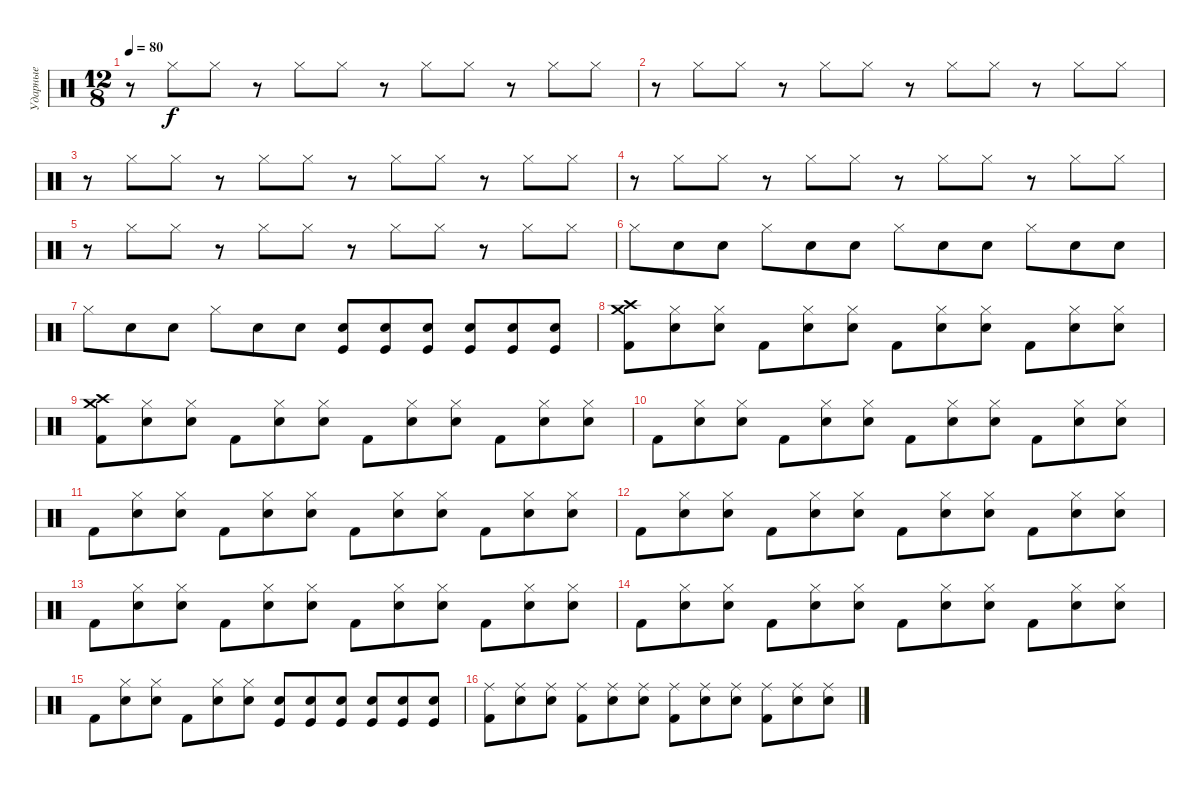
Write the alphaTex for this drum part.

\track ("Ударные" "Ударные") {instrument percussion}
\staff {score}
\articulation defaults
\ts (12 8)
\tempo 80
\clef neutral
\ks c
r.8{dy f} "Hi-Hat (closed)".8 "Hi-Hat (closed)".8 r.8 "Hi-Hat (closed)".8 "Hi-Hat (closed)".8 r.8 "Hi-Hat (closed)".8 "Hi-Hat (closed)".8 r.8 "Hi-Hat (closed)".8 "Hi-Hat (closed)".8 |
r.8 "Hi-Hat (closed)".8 "Hi-Hat (closed)".8 r.8 "Hi-Hat (closed)".8 "Hi-Hat (closed)".8 r.8 "Hi-Hat (closed)".8 "Hi-Hat (closed)".8 r.8 "Hi-Hat (closed)".8 "Hi-Hat (closed)".8 |
r.8 "Hi-Hat (closed)".8 "Hi-Hat (closed)".8 r.8 "Hi-Hat (closed)".8 "Hi-Hat (closed)".8 r.8 "Hi-Hat (closed)".8 "Hi-Hat (closed)".8 r.8 "Hi-Hat (closed)".8 "Hi-Hat (closed)".8 |
r.8 "Hi-Hat (closed)".8 "Hi-Hat (closed)".8 r.8 "Hi-Hat (closed)".8 "Hi-Hat (closed)".8 r.8 "Hi-Hat (closed)".8 "Hi-Hat (closed)".8 r.8 "Hi-Hat (closed)".8 "Hi-Hat (closed)".8 |
r.8 "Hi-Hat (closed)".8 "Hi-Hat (closed)".8 r.8 "Hi-Hat (closed)".8 "Hi-Hat (closed)".8 r.8 "Hi-Hat (closed)".8 "Hi-Hat (closed)".8 r.8 "Hi-Hat (closed)".8 "Hi-Hat (closed)".8 |
"Hi-Hat (closed)".8 "Electric Snare (hit)".8 "Electric Snare (hit)".8 "Hi-Hat (closed)".8 "Electric Snare (hit)".8 "Electric Snare (hit)".8 "Hi-Hat (closed)".8 "Electric Snare (hit)".8 "Electric Snare (hit)".8 "Hi-Hat (closed)".8 "Electric Snare (hit)".8 "Electric Snare (hit)".8 |
"Hi-Hat (closed)".8 "Electric Snare (hit)".8 "Electric Snare (hit)".8 "Hi-Hat (closed)".8 "Electric Snare (hit)".8 "Electric Snare (hit)".8 ("Electric Snare (hit)" "Kick (hit)").8 ("Electric Snare (hit)" "Kick (hit)").8 ("Electric Snare (hit)" "Kick (hit)").8 ("Electric Snare (hit)" "Kick (hit)").8 ("Electric Snare (hit)" "Kick (hit)").8 ("Electric Snare (hit)" "Kick (hit)").8 |
("Crash high (hit)" "Crash medium (hit)" "Kick (hit) 2").8 ("Electric Snare (hit)" "Hi-Hat (closed)").8 ("Electric Snare (hit)" "Hi-Hat (closed)").8 "Kick (hit) 2".8 ("Electric Snare (hit)" "Hi-Hat (closed)").8 ("Electric Snare (hit)" "Hi-Hat (closed)").8 "Kick (hit) 2".8 ("Electric Snare (hit)" "Hi-Hat (closed)").8 ("Electric Snare (hit)" "Hi-Hat (closed)").8 "Kick (hit) 2".8 ("Electric Snare (hit)" "Hi-Hat (closed)").8 ("Electric Snare (hit)" "Hi-Hat (closed)").8 |
("Crash high (hit)" "Crash medium (hit)" "Kick (hit) 2").8 ("Electric Snare (hit)" "Hi-Hat (closed)").8 ("Electric Snare (hit)" "Hi-Hat (closed)").8 "Kick (hit) 2".8 ("Electric Snare (hit)" "Hi-Hat (closed)").8 ("Electric Snare (hit)" "Hi-Hat (closed)").8 "Kick (hit) 2".8 ("Electric Snare (hit)" "Hi-Hat (closed)").8 ("Electric Snare (hit)" "Hi-Hat (closed)").8 "Kick (hit) 2".8 ("Electric Snare (hit)" "Hi-Hat (closed)").8 ("Electric Snare (hit)" "Hi-Hat (closed)").8 |
"Kick (hit) 2".8 ("Electric Snare (hit)" "Hi-Hat (closed)").8 ("Electric Snare (hit)" "Hi-Hat (closed)").8 "Kick (hit) 2".8 ("Electric Snare (hit)" "Hi-Hat (closed)").8 ("Electric Snare (hit)" "Hi-Hat (closed)").8 "Kick (hit) 2".8 ("Electric Snare (hit)" "Hi-Hat (closed)").8 ("Electric Snare (hit)" "Hi-Hat (closed)").8 "Kick (hit) 2".8 ("Electric Snare (hit)" "Hi-Hat (closed)").8 ("Electric Snare (hit)" "Hi-Hat (closed)").8 |
"Kick (hit) 2".8 ("Electric Snare (hit)" "Hi-Hat (closed)").8 ("Electric Snare (hit)" "Hi-Hat (closed)").8 "Kick (hit) 2".8 ("Electric Snare (hit)" "Hi-Hat (closed)").8 ("Electric Snare (hit)" "Hi-Hat (closed)").8 "Kick (hit) 2".8 ("Electric Snare (hit)" "Hi-Hat (closed)").8 ("Electric Snare (hit)" "Hi-Hat (closed)").8 "Kick (hit) 2".8 ("Electric Snare (hit)" "Hi-Hat (closed)").8 ("Electric Snare (hit)" "Hi-Hat (closed)").8 |
"Kick (hit) 2".8 ("Electric Snare (hit)" "Hi-Hat (closed)").8 ("Electric Snare (hit)" "Hi-Hat (closed)").8 "Kick (hit) 2".8 ("Electric Snare (hit)" "Hi-Hat (closed)").8 ("Electric Snare (hit)" "Hi-Hat (closed)").8 "Kick (hit) 2".8 ("Electric Snare (hit)" "Hi-Hat (closed)").8 ("Electric Snare (hit)" "Hi-Hat (closed)").8 "Kick (hit) 2".8 ("Electric Snare (hit)" "Hi-Hat (closed)").8 ("Electric Snare (hit)" "Hi-Hat (closed)").8 |
"Kick (hit) 2".8 ("Electric Snare (hit)" "Hi-Hat (closed)").8 ("Electric Snare (hit)" "Hi-Hat (closed)").8 "Kick (hit) 2".8 ("Electric Snare (hit)" "Hi-Hat (closed)").8 ("Electric Snare (hit)" "Hi-Hat (closed)").8 "Kick (hit) 2".8 ("Electric Snare (hit)" "Hi-Hat (closed)").8 ("Electric Snare (hit)" "Hi-Hat (closed)").8 "Kick (hit) 2".8 ("Electric Snare (hit)" "Hi-Hat (closed)").8 ("Electric Snare (hit)" "Hi-Hat (closed)").8 |
"Kick (hit) 2".8 ("Electric Snare (hit)" "Hi-Hat (closed)").8 ("Electric Snare (hit)" "Hi-Hat (closed)").8 "Kick (hit) 2".8 ("Electric Snare (hit)" "Hi-Hat (closed)").8 ("Electric Snare (hit)" "Hi-Hat (closed)").8 "Kick (hit) 2".8 ("Electric Snare (hit)" "Hi-Hat (closed)").8 ("Electric Snare (hit)" "Hi-Hat (closed)").8 "Kick (hit) 2".8 ("Electric Snare (hit)" "Hi-Hat (closed)").8 ("Electric Snare (hit)" "Hi-Hat (closed)").8 |
"Kick (hit) 2".8 ("Electric Snare (hit)" "Hi-Hat (closed)").8 ("Electric Snare (hit)" "Hi-Hat (closed)").8 "Kick (hit) 2".8 ("Electric Snare (hit)" "Hi-Hat (closed)").8 ("Electric Snare (hit)" "Hi-Hat (closed)").8 ("Electric Snare (hit)" "Kick (hit)").8 ("Electric Snare (hit)" "Kick (hit)").8 ("Electric Snare (hit)" "Kick (hit)").8 ("Electric Snare (hit)" "Kick (hit)").8 ("Electric Snare (hit)" "Kick (hit)").8 ("Electric Snare (hit)" "Kick (hit)").8 |
("Kick (hit) 2" "Ride (middle)").8 ("Electric Snare (hit)" "Ride (middle)").8 ("Electric Snare (hit)" "Ride (middle)").8 ("Kick (hit) 2" "Ride (middle)").8 ("Electric Snare (hit)" "Ride (middle)").8 ("Electric Snare (hit)" "Ride (middle)").8 ("Kick (hit) 2" "Ride (middle)").8 ("Electric Snare (hit)" "Ride (middle)").8 ("Electric Snare (hit)" "Ride (middle)").8 ("Kick (hit) 2" "Ride (middle)").8 ("Electric Snare (hit)" "Ride (middle)").8 ("Electric Snare (hit)" "Ride (middle)").8
